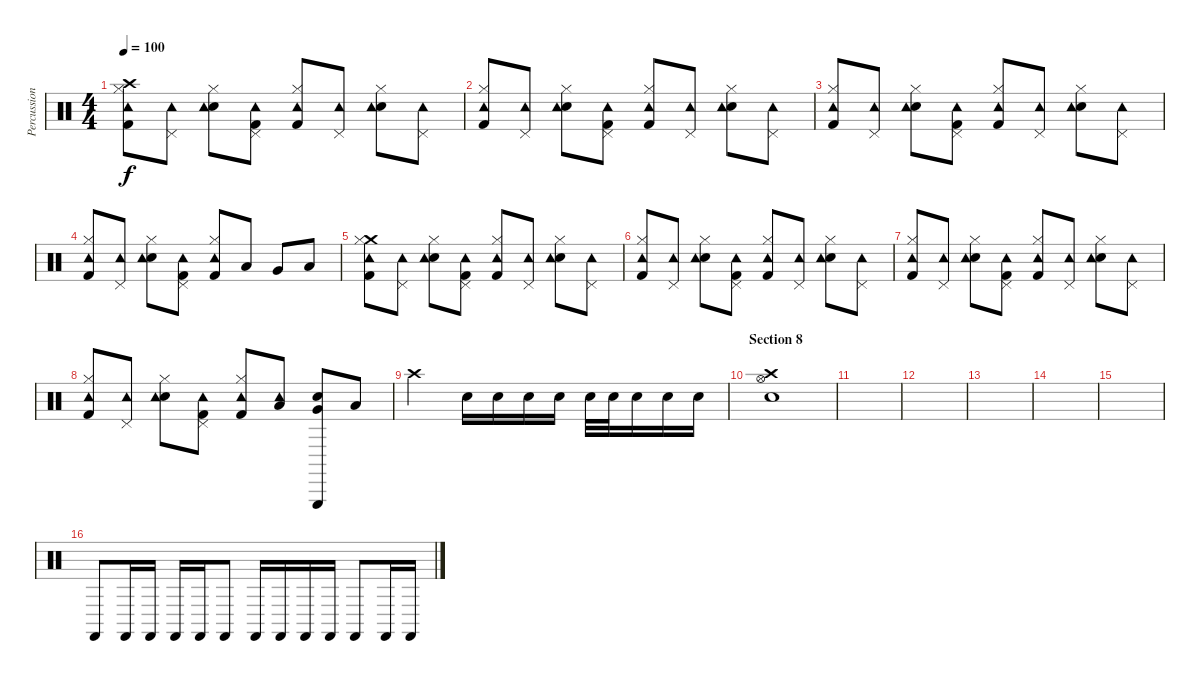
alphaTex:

\track ("Percussion" "Percussion") {instrument percussion}
\staff {score}
\articulation defaults
\ts (4 4)
\tempo 100
\clef neutral
\ks c
("Crash high (hit)" "Kick (hit) 2" "Hi-Hat (closed)" "Tambourine (hit)").8{dy f} ("Pedal Hi-Hat (hit)" "Tambourine (hit)").8 ("Electric Snare (hit)" "Hi-Hat (closed)" "Tambourine (hit)").8 ("Kick (hit) 2" "Pedal Hi-Hat (hit)" "Tambourine (hit)").8 ("Kick (hit) 2" "Hi-Hat (closed)" "Tambourine (hit)").8 ("Pedal Hi-Hat (hit)" "Tambourine (hit)").8 ("Electric Snare (hit)" "Hi-Hat (closed)" "Tambourine (hit)").8 ("Pedal Hi-Hat (hit)" "Tambourine (hit)").8 |
("Kick (hit) 2" "Hi-Hat (closed)" "Tambourine (hit)").8 ("Pedal Hi-Hat (hit)" "Tambourine (hit)").8 ("Electric Snare (hit)" "Hi-Hat (closed)" "Tambourine (hit)").8 ("Kick (hit) 2" "Pedal Hi-Hat (hit)" "Tambourine (hit)").8 ("Kick (hit) 2" "Hi-Hat (closed)" "Tambourine (hit)").8 ("Pedal Hi-Hat (hit)" "Tambourine (hit)").8 ("Electric Snare (hit)" "Hi-Hat (closed)" "Tambourine (hit)").8 ("Pedal Hi-Hat (hit)" "Tambourine (hit)").8 |
("Kick (hit) 2" "Hi-Hat (closed)" "Tambourine (hit)").8 ("Pedal Hi-Hat (hit)" "Tambourine (hit)").8 ("Electric Snare (hit)" "Hi-Hat (closed)" "Tambourine (hit)").8 ("Kick (hit) 2" "Pedal Hi-Hat (hit)" "Tambourine (hit)").8 ("Kick (hit) 2" "Hi-Hat (closed)" "Tambourine (hit)").8 ("Pedal Hi-Hat (hit)" "Tambourine (hit)").8 ("Electric Snare (hit)" "Hi-Hat (closed)" "Tambourine (hit)").8 ("Pedal Hi-Hat (hit)" "Tambourine (hit)").8 |
("Kick (hit) 2" "Hi-Hat (closed)" "Tambourine (hit)").8 ("Pedal Hi-Hat (hit)" "Tambourine (hit)").8 ("Electric Snare (hit)" "Hi-Hat (closed)" "Tambourine (hit)").8 ("Kick (hit) 2" "Pedal Hi-Hat (hit)" "Tambourine (hit)").8 ("Kick (hit) 2" "Hi-Hat (closed)" "Tambourine (hit)").8 "Low Tom (hit)".8 "Very Low Tom (hit)".8 "Low Tom (hit)".8 |
("Crash medium (hit)" "Kick (hit) 2" "Hi-Hat (closed)" "Tambourine (hit)").8 ("Pedal Hi-Hat (hit)" "Tambourine (hit)").8 ("Electric Snare (hit)" "Hi-Hat (closed)" "Tambourine (hit)").8 ("Kick (hit) 2" "Pedal Hi-Hat (hit)" "Tambourine (hit)").8 ("Kick (hit) 2" "Hi-Hat (closed)" "Tambourine (hit)").8 ("Pedal Hi-Hat (hit)" "Tambourine (hit)").8 ("Electric Snare (hit)" "Hi-Hat (closed)" "Tambourine (hit)").8 ("Pedal Hi-Hat (hit)" "Tambourine (hit)").8 |
("Kick (hit) 2" "Hi-Hat (closed)" "Tambourine (hit)").8 ("Pedal Hi-Hat (hit)" "Tambourine (hit)").8 ("Electric Snare (hit)" "Hi-Hat (closed)" "Tambourine (hit)").8 ("Kick (hit) 2" "Pedal Hi-Hat (hit)" "Tambourine (hit)").8 ("Kick (hit) 2" "Hi-Hat (closed)" "Tambourine (hit)").8 ("Pedal Hi-Hat (hit)" "Tambourine (hit)").8 ("Electric Snare (hit)" "Hi-Hat (closed)" "Tambourine (hit)").8 ("Pedal Hi-Hat (hit)" "Tambourine (hit)").8 |
("Kick (hit) 2" "Hi-Hat (closed)" "Tambourine (hit)").8 ("Pedal Hi-Hat (hit)" "Tambourine (hit)").8 ("Electric Snare (hit)" "Hi-Hat (closed)" "Tambourine (hit)").8 ("Kick (hit) 2" "Pedal Hi-Hat (hit)" "Tambourine (hit)").8 ("Kick (hit) 2" "Hi-Hat (closed)" "Tambourine (hit)").8 ("Pedal Hi-Hat (hit)" "Tambourine (hit)").8 ("Electric Snare (hit)" "Hi-Hat (closed)" "Tambourine (hit)").8 ("Pedal Hi-Hat (hit)" "Tambourine (hit)").8 |
("Kick (hit) 2" "Hi-Hat (closed)" "Tambourine (hit)").8 ("Pedal Hi-Hat (hit)" "Tambourine (hit)").8 ("Electric Snare (hit)" "Hi-Hat (closed)" "Tambourine (hit)").8 ("Kick (hit) 2" "Pedal Hi-Hat (hit)" "Tambourine (hit)").8 ("Kick (hit) 2" "Hi-Hat (closed)" "Tambourine (hit)").8 ("Low Tom (hit)" "Tambourine (hit)").8 ("Very Low Tom (hit)" "Electric Snare (hit)" "Triangle (hit)").8{bd 120} "Low Tom (hit)".8 |
"Crash high (hit)".2 "Electric Snare (hit)".16 "Electric Snare (hit)".16 "Electric Snare (hit)".16 "Electric Snare (hit)".16 "Electric Snare (hit)".32 "Electric Snare (hit)".32 "Electric Snare (hit)".16 "Electric Snare (hit)".16 "Electric Snare (hit)".16 |
\section ("" "Section 8")
("Crash high (hit)" "Electric Snare (hit)" "Hi-Hat (open)").1 |
|
|
|
|
|
"Castanets (hit)".8 "Castanets (hit)".16 "Castanets (hit)".16 "Castanets (hit)".16 "Castanets (hit)".16 "Castanets (hit)".8 "Castanets (hit)".16 "Castanets (hit)".16 "Castanets (hit)".16 "Castanets (hit)".16 "Castanets (hit)".8 "Castanets (hit)".16 "Castanets (hit)".16
